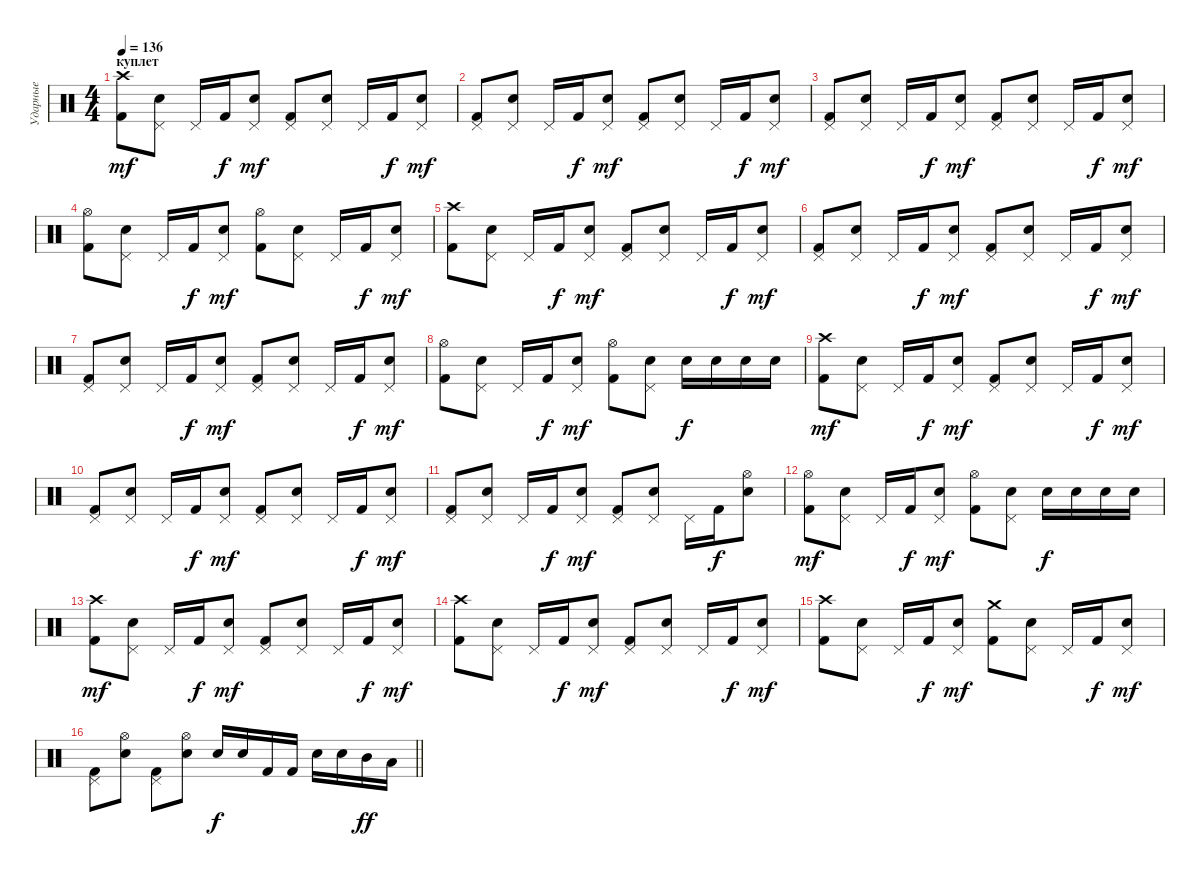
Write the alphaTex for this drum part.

\track ("Ударные" "Ударные") {instrument percussion}
\staff {score}
\articulation defaults
\ts (4 4)
\section ("" "куплет")
\tempo 136
\clef neutral
\ks c
("Kick (hit) 2" "Crash high (hit)").8{dy mf} ("Electric Snare (hit)" "Pedal Hi-Hat (hit)").8 "Pedal Hi-Hat (hit)".16 "Kick (hit) 2".16{dy f} ("Electric Snare (hit)" "Pedal Hi-Hat (hit)").8{dy mf} ("Kick (hit) 2" "Pedal Hi-Hat (hit)").8 ("Electric Snare (hit)" "Pedal Hi-Hat (hit)").8 "Pedal Hi-Hat (hit)".16 "Kick (hit) 2".16{dy f} ("Electric Snare (hit)" "Pedal Hi-Hat (hit)").8{dy mf} |
("Kick (hit) 2" "Pedal Hi-Hat (hit)").8 ("Electric Snare (hit)" "Pedal Hi-Hat (hit)").8 "Pedal Hi-Hat (hit)".16 "Kick (hit) 2".16{dy f} ("Electric Snare (hit)" "Pedal Hi-Hat (hit)").8{dy mf} ("Kick (hit) 2" "Pedal Hi-Hat (hit)").8 ("Electric Snare (hit)" "Pedal Hi-Hat (hit)").8 "Pedal Hi-Hat (hit)".16 "Kick (hit) 2".16{dy f} ("Electric Snare (hit)" "Pedal Hi-Hat (hit)").8{dy mf} |
("Kick (hit) 2" "Pedal Hi-Hat (hit)").8 ("Electric Snare (hit)" "Pedal Hi-Hat (hit)").8 "Pedal Hi-Hat (hit)".16 "Kick (hit) 2".16{dy f} ("Electric Snare (hit)" "Pedal Hi-Hat (hit)").8{dy mf} ("Kick (hit) 2" "Pedal Hi-Hat (hit)").8 ("Electric Snare (hit)" "Pedal Hi-Hat (hit)").8 "Pedal Hi-Hat (hit)".16 "Kick (hit) 2".16{dy f} ("Electric Snare (hit)" "Pedal Hi-Hat (hit)").8{dy mf} |
("Kick (hit) 2" "Hi-Hat (open)").8 ("Electric Snare (hit)" "Pedal Hi-Hat (hit)").8 "Pedal Hi-Hat (hit)".16 "Kick (hit) 2".16{dy f} ("Electric Snare (hit)" "Pedal Hi-Hat (hit)").8{dy mf} ("Kick (hit) 2" "Hi-Hat (open)").8 ("Electric Snare (hit)" "Pedal Hi-Hat (hit)").8 "Pedal Hi-Hat (hit)".16 "Kick (hit) 2".16{dy f} ("Electric Snare (hit)" "Pedal Hi-Hat (hit)").8{dy mf} |
("Kick (hit) 2" "Crash high (hit)").8 ("Electric Snare (hit)" "Pedal Hi-Hat (hit)").8 "Pedal Hi-Hat (hit)".16 "Kick (hit) 2".16{dy f} ("Electric Snare (hit)" "Pedal Hi-Hat (hit)").8{dy mf} ("Kick (hit) 2" "Pedal Hi-Hat (hit)").8 ("Electric Snare (hit)" "Pedal Hi-Hat (hit)").8 "Pedal Hi-Hat (hit)".16 "Kick (hit) 2".16{dy f} ("Electric Snare (hit)" "Pedal Hi-Hat (hit)").8{dy mf} |
("Kick (hit) 2" "Pedal Hi-Hat (hit)").8 ("Electric Snare (hit)" "Pedal Hi-Hat (hit)").8 "Pedal Hi-Hat (hit)".16 "Kick (hit) 2".16{dy f} ("Electric Snare (hit)" "Pedal Hi-Hat (hit)").8{dy mf} ("Kick (hit) 2" "Pedal Hi-Hat (hit)").8 ("Electric Snare (hit)" "Pedal Hi-Hat (hit)").8 "Pedal Hi-Hat (hit)".16 "Kick (hit) 2".16{dy f} ("Electric Snare (hit)" "Pedal Hi-Hat (hit)").8{dy mf} |
("Kick (hit) 2" "Pedal Hi-Hat (hit)").8 ("Electric Snare (hit)" "Pedal Hi-Hat (hit)").8 "Pedal Hi-Hat (hit)".16 "Kick (hit) 2".16{dy f} ("Electric Snare (hit)" "Pedal Hi-Hat (hit)").8{dy mf} ("Kick (hit) 2" "Pedal Hi-Hat (hit)").8 ("Electric Snare (hit)" "Pedal Hi-Hat (hit)").8 "Pedal Hi-Hat (hit)".16 "Kick (hit) 2".16{dy f} ("Electric Snare (hit)" "Pedal Hi-Hat (hit)").8{dy mf} |
("Kick (hit) 2" "Hi-Hat (open)").8 ("Electric Snare (hit)" "Pedal Hi-Hat (hit)").8 "Pedal Hi-Hat (hit)".16 "Kick (hit) 2".16{dy f} ("Electric Snare (hit)" "Pedal Hi-Hat (hit)").8{dy mf} ("Kick (hit) 2" "Hi-Hat (open)").8 ("Electric Snare (hit)" "Pedal Hi-Hat (hit)").8 "Electric Snare (hit)".16{dy f} "Electric Snare (hit)".16 "Electric Snare (hit)".16 "Electric Snare (hit)".16 |
("Kick (hit) 2" "Crash high (hit)").8{dy mf} ("Electric Snare (hit)" "Pedal Hi-Hat (hit)").8 "Pedal Hi-Hat (hit)".16 "Kick (hit) 2".16{dy f} ("Electric Snare (hit)" "Pedal Hi-Hat (hit)").8{dy mf} ("Kick (hit) 2" "Pedal Hi-Hat (hit)").8 ("Electric Snare (hit)" "Pedal Hi-Hat (hit)").8 "Pedal Hi-Hat (hit)".16 "Kick (hit) 2".16{dy f} ("Electric Snare (hit)" "Pedal Hi-Hat (hit)").8{dy mf} |
("Kick (hit) 2" "Pedal Hi-Hat (hit)").8 ("Electric Snare (hit)" "Pedal Hi-Hat (hit)").8 "Pedal Hi-Hat (hit)".16 "Kick (hit) 2".16{dy f} ("Electric Snare (hit)" "Pedal Hi-Hat (hit)").8{dy mf} ("Kick (hit) 2" "Pedal Hi-Hat (hit)").8 ("Electric Snare (hit)" "Pedal Hi-Hat (hit)").8 "Pedal Hi-Hat (hit)".16 "Kick (hit) 2".16{dy f} ("Electric Snare (hit)" "Pedal Hi-Hat (hit)").8{dy mf} |
("Kick (hit) 2" "Pedal Hi-Hat (hit)").8 ("Electric Snare (hit)" "Pedal Hi-Hat (hit)").8 "Pedal Hi-Hat (hit)".16 "Kick (hit) 2".16{dy f} ("Electric Snare (hit)" "Pedal Hi-Hat (hit)").8{dy mf} ("Kick (hit) 2" "Pedal Hi-Hat (hit)").8 ("Electric Snare (hit)" "Pedal Hi-Hat (hit)").8 "Pedal Hi-Hat (hit)".16 "Kick (hit) 2".16{dy f} ("Electric Snare (hit)" "Hi-Hat (open)").8 |
("Kick (hit) 2" "Hi-Hat (open)").8{dy mf} ("Electric Snare (hit)" "Pedal Hi-Hat (hit)").8 "Pedal Hi-Hat (hit)".16 "Kick (hit) 2".16{dy f} ("Electric Snare (hit)" "Pedal Hi-Hat (hit)").8{dy mf} ("Kick (hit) 2" "Hi-Hat (open)").8 ("Electric Snare (hit)" "Pedal Hi-Hat (hit)").8 "Electric Snare (hit)".16{dy f} "Electric Snare (hit)".16 "Electric Snare (hit)".16 "Electric Snare (hit)".16 |
("Kick (hit) 2" "Crash high (hit)").8{dy mf} ("Electric Snare (hit)" "Pedal Hi-Hat (hit)").8 "Pedal Hi-Hat (hit)".16 "Kick (hit) 2".16{dy f} ("Electric Snare (hit)" "Pedal Hi-Hat (hit)").8{dy mf} ("Kick (hit) 2" "Pedal Hi-Hat (hit)").8 ("Electric Snare (hit)" "Pedal Hi-Hat (hit)").8 "Pedal Hi-Hat (hit)".16 "Kick (hit) 2".16{dy f} ("Electric Snare (hit)" "Pedal Hi-Hat (hit)").8{dy mf} |
("Kick (hit) 2" "Crash high (hit)").8 ("Electric Snare (hit)" "Pedal Hi-Hat (hit)").8 "Pedal Hi-Hat (hit)".16 "Kick (hit) 2".16{dy f} ("Electric Snare (hit)" "Pedal Hi-Hat (hit)").8{dy mf} ("Kick (hit) 2" "Pedal Hi-Hat (hit)").8 ("Electric Snare (hit)" "Pedal Hi-Hat (hit)").8 "Pedal Hi-Hat (hit)".16 "Kick (hit) 2".16{dy f} ("Electric Snare (hit)" "Pedal Hi-Hat (hit)").8{dy mf} |
("Kick (hit) 2" "Crash high (hit)").8 ("Electric Snare (hit)" "Pedal Hi-Hat (hit)").8 "Pedal Hi-Hat (hit)".16 "Kick (hit) 2".16{dy f} ("Electric Snare (hit)" "Pedal Hi-Hat (hit)").8{dy mf} ("Kick (hit) 2" "Crash medium (hit)").8 ("Electric Snare (hit)" "Pedal Hi-Hat (hit)").8 "Pedal Hi-Hat (hit)".16 "Kick (hit) 2".16{dy f} ("Electric Snare (hit)" "Pedal Hi-Hat (hit)").8{dy mf} |
\barLineRight lightlight
("Kick (hit) 2" "Pedal Hi-Hat (hit)").8 ("Electric Snare (hit)" "Hi-Hat (open)").8 ("Kick (hit) 2" "Pedal Hi-Hat (hit)").8 ("Electric Snare (hit)" "Hi-Hat (open)").8 "Electric Snare (hit)".16{dy f} "Electric Snare (hit)".16 "Kick (hit) 2".16 "Kick (hit) 2".16 "Electric Snare (hit)".16 "Electric Snare (hit)".16 "Mid Tom (hit)".16{dy ff} "Low Tom (hit)".16
